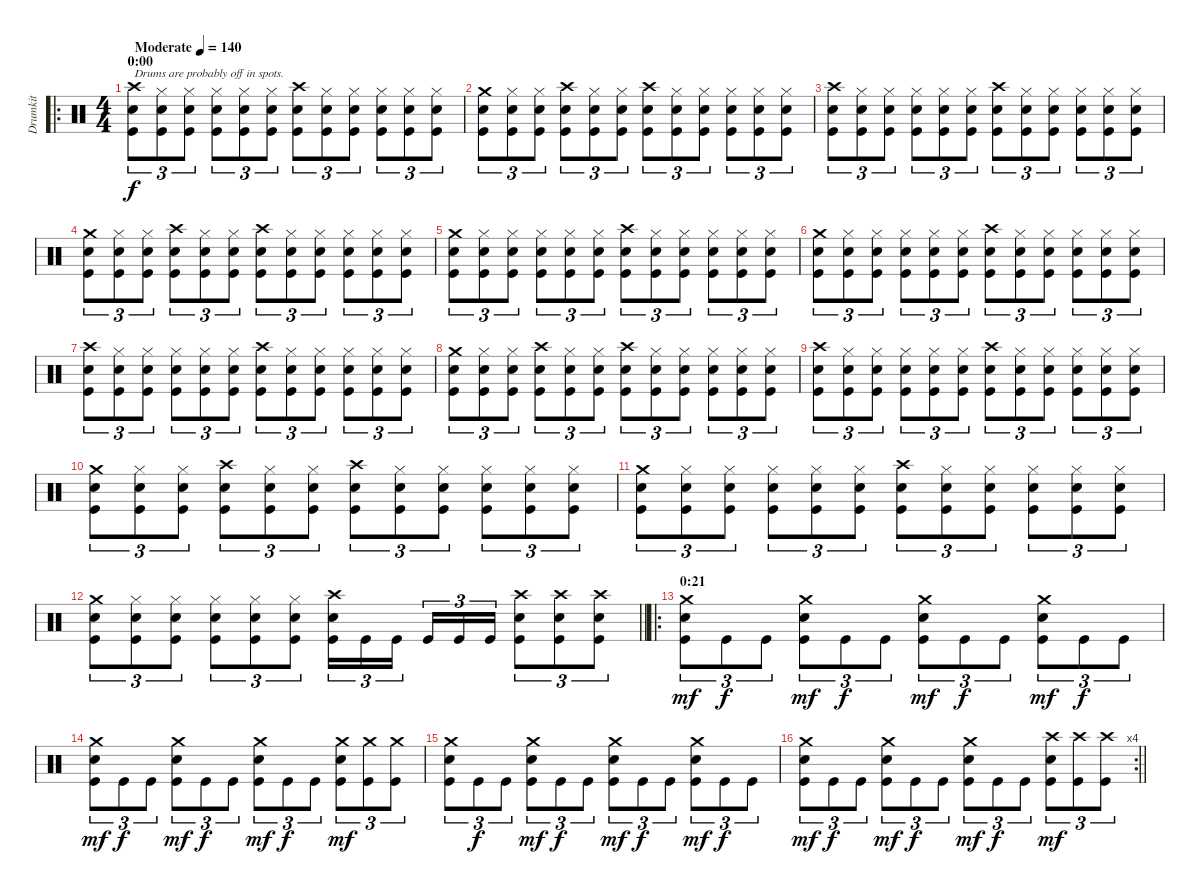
\track ("Drumkit" "Drumkit") {instrument percussion}
\staff {score}
\articulation defaults
\ro
\ts (4 4)
\section ("" "0:00")
\tempo (140 "Moderate")
\clef neutral
\ks c
("Crash high (hit)" "Snare (hit) 2" "Kick (hit)").8{tu (3 2) txt "Drums are probably off in spots." dy f} ("Hi-Hat (closed)" "Snare (hit) 2" "Kick (hit)").8{tu (3 2)} ("Hi-Hat (closed)" "Snare (hit) 2" "Kick (hit)").8{tu (3 2)} ("Hi-Hat (closed)" "Snare (hit) 2" "Kick (hit)").8{tu (3 2)} ("Hi-Hat (closed)" "Snare (hit) 2" "Kick (hit)").8{tu (3 2)} ("Hi-Hat (closed)" "Snare (hit) 2" "Kick (hit)").8{tu (3 2)} ("Crash high (hit)" "Snare (hit) 2" "Kick (hit)").8{tu (3 2)} ("Hi-Hat (closed)" "Snare (hit) 2" "Kick (hit)").8{tu (3 2)} ("Hi-Hat (closed)" "Snare (hit) 2" "Kick (hit)").8{tu (3 2)} ("Hi-Hat (closed)" "Snare (hit) 2" "Kick (hit)").8{tu (3 2)} ("Hi-Hat (closed)" "Snare (hit) 2" "Kick (hit)").8{tu (3 2)} ("Hi-Hat (closed)" "Snare (hit) 2" "Kick (hit)").8{tu (3 2)} |
("Crash medium (hit)" "Snare (hit) 2" "Kick (hit)").8{tu (3 2)} ("Hi-Hat (closed)" "Snare (hit) 2" "Kick (hit)").8{tu (3 2)} ("Hi-Hat (closed)" "Snare (hit) 2" "Kick (hit)").8{tu (3 2)} ("Crash high (hit)" "Snare (hit) 2" "Kick (hit)").8{tu (3 2)} ("Hi-Hat (closed)" "Snare (hit) 2" "Kick (hit)").8{tu (3 2)} ("Hi-Hat (closed)" "Snare (hit) 2" "Kick (hit)").8{tu (3 2)} ("Crash high (hit)" "Snare (hit) 2" "Kick (hit)").8{tu (3 2)} ("Hi-Hat (closed)" "Snare (hit) 2" "Kick (hit)").8{tu (3 2)} ("Hi-Hat (closed)" "Snare (hit) 2" "Kick (hit)").8{tu (3 2)} ("Hi-Hat (closed)" "Snare (hit) 2" "Kick (hit)").8{tu (3 2)} ("Hi-Hat (closed)" "Snare (hit) 2" "Kick (hit)").8{tu (3 2)} ("Hi-Hat (closed)" "Snare (hit) 2" "Kick (hit)").8{tu (3 2)} |
("Crash high (hit)" "Snare (hit) 2" "Kick (hit)").8{tu (3 2)} ("Hi-Hat (closed)" "Snare (hit) 2" "Kick (hit)").8{tu (3 2)} ("Hi-Hat (closed)" "Snare (hit) 2" "Kick (hit)").8{tu (3 2)} ("Hi-Hat (closed)" "Snare (hit) 2" "Kick (hit)").8{tu (3 2)} ("Hi-Hat (closed)" "Snare (hit) 2" "Kick (hit)").8{tu (3 2)} ("Hi-Hat (closed)" "Snare (hit) 2" "Kick (hit)").8{tu (3 2)} ("Crash high (hit)" "Snare (hit) 2" "Kick (hit)").8{tu (3 2)} ("Hi-Hat (closed)" "Snare (hit) 2" "Kick (hit)").8{tu (3 2)} ("Hi-Hat (closed)" "Snare (hit) 2" "Kick (hit)").8{tu (3 2)} ("Hi-Hat (closed)" "Snare (hit) 2" "Kick (hit)").8{tu (3 2)} ("Hi-Hat (closed)" "Snare (hit) 2" "Kick (hit)").8{tu (3 2)} ("Hi-Hat (closed)" "Snare (hit) 2" "Kick (hit)").8{tu (3 2)} |
("Crash medium (hit)" "Snare (hit) 2" "Kick (hit)").8{tu (3 2)} ("Hi-Hat (closed)" "Snare (hit) 2" "Kick (hit)").8{tu (3 2)} ("Hi-Hat (closed)" "Snare (hit) 2" "Kick (hit)").8{tu (3 2)} ("Crash high (hit)" "Snare (hit) 2" "Kick (hit)").8{tu (3 2)} ("Hi-Hat (closed)" "Snare (hit) 2" "Kick (hit)").8{tu (3 2)} ("Hi-Hat (closed)" "Snare (hit) 2" "Kick (hit)").8{tu (3 2)} ("Crash high (hit)" "Snare (hit) 2" "Kick (hit)").8{tu (3 2)} ("Hi-Hat (closed)" "Snare (hit) 2" "Kick (hit)").8{tu (3 2)} ("Hi-Hat (closed)" "Snare (hit) 2" "Kick (hit)").8{tu (3 2)} ("Hi-Hat (closed)" "Snare (hit) 2" "Kick (hit)").8{tu (3 2)} ("Hi-Hat (closed)" "Snare (hit) 2" "Kick (hit)").8{tu (3 2)} ("Hi-Hat (closed)" "Snare (hit) 2" "Kick (hit)").8{tu (3 2)} |
("Crash medium (hit)" "Snare (hit) 2" "Kick (hit)").8{tu (3 2)} ("Hi-Hat (closed)" "Snare (hit) 2" "Kick (hit)").8{tu (3 2)} ("Hi-Hat (closed)" "Snare (hit) 2" "Kick (hit)").8{tu (3 2)} ("Hi-Hat (closed)" "Snare (hit) 2" "Kick (hit)").8{tu (3 2)} ("Hi-Hat (closed)" "Snare (hit) 2" "Kick (hit)").8{tu (3 2)} ("Hi-Hat (closed)" "Snare (hit) 2" "Kick (hit)").8{tu (3 2)} ("Crash high (hit)" "Snare (hit) 2" "Kick (hit)").8{tu (3 2)} ("Hi-Hat (closed)" "Snare (hit) 2" "Kick (hit)").8{tu (3 2)} ("Hi-Hat (closed)" "Snare (hit) 2" "Kick (hit)").8{tu (3 2)} ("Hi-Hat (closed)" "Snare (hit) 2" "Kick (hit)").8{tu (3 2)} ("Hi-Hat (closed)" "Snare (hit) 2" "Kick (hit)").8{tu (3 2)} ("Hi-Hat (closed)" "Snare (hit) 2" "Kick (hit)").8{tu (3 2)} |
("Crash medium (hit)" "Snare (hit) 2" "Kick (hit)").8{tu (3 2)} ("Hi-Hat (closed)" "Snare (hit) 2" "Kick (hit)").8{tu (3 2)} ("Hi-Hat (closed)" "Snare (hit) 2" "Kick (hit)").8{tu (3 2)} ("Hi-Hat (closed)" "Snare (hit) 2" "Kick (hit)").8{tu (3 2)} ("Hi-Hat (closed)" "Snare (hit) 2" "Kick (hit)").8{tu (3 2)} ("Hi-Hat (closed)" "Snare (hit) 2" "Kick (hit)").8{tu (3 2)} ("Crash high (hit)" "Snare (hit) 2" "Kick (hit)").8{tu (3 2)} ("Hi-Hat (closed)" "Snare (hit) 2" "Kick (hit)").8{tu (3 2)} ("Hi-Hat (closed)" "Snare (hit) 2" "Kick (hit)").8{tu (3 2)} ("Hi-Hat (closed)" "Snare (hit) 2" "Kick (hit)").8{tu (3 2)} ("Hi-Hat (closed)" "Snare (hit) 2" "Kick (hit)").8{tu (3 2)} ("Hi-Hat (closed)" "Snare (hit) 2" "Kick (hit)").8{tu (3 2)} |
("Crash high (hit)" "Snare (hit) 2" "Kick (hit)").8{tu (3 2)} ("Hi-Hat (closed)" "Snare (hit) 2" "Kick (hit)").8{tu (3 2)} ("Hi-Hat (closed)" "Snare (hit) 2" "Kick (hit)").8{tu (3 2)} ("Hi-Hat (closed)" "Snare (hit) 2" "Kick (hit)").8{tu (3 2)} ("Hi-Hat (closed)" "Snare (hit) 2" "Kick (hit)").8{tu (3 2)} ("Hi-Hat (closed)" "Snare (hit) 2" "Kick (hit)").8{tu (3 2)} ("Crash high (hit)" "Snare (hit) 2" "Kick (hit)").8{tu (3 2)} ("Hi-Hat (closed)" "Snare (hit) 2" "Kick (hit)").8{tu (3 2)} ("Hi-Hat (closed)" "Snare (hit) 2" "Kick (hit)").8{tu (3 2)} ("Hi-Hat (closed)" "Snare (hit) 2" "Kick (hit)").8{tu (3 2)} ("Hi-Hat (closed)" "Snare (hit) 2" "Kick (hit)").8{tu (3 2)} ("Hi-Hat (closed)" "Snare (hit) 2" "Kick (hit)").8{tu (3 2)} |
("Crash medium (hit)" "Snare (hit) 2" "Kick (hit)").8{tu (3 2)} ("Hi-Hat (closed)" "Snare (hit) 2" "Kick (hit)").8{tu (3 2)} ("Hi-Hat (closed)" "Snare (hit) 2" "Kick (hit)").8{tu (3 2)} ("Crash high (hit)" "Snare (hit) 2" "Kick (hit)").8{tu (3 2)} ("Hi-Hat (closed)" "Snare (hit) 2" "Kick (hit)").8{tu (3 2)} ("Hi-Hat (closed)" "Snare (hit) 2" "Kick (hit)").8{tu (3 2)} ("Crash high (hit)" "Snare (hit) 2" "Kick (hit)").8{tu (3 2)} ("Hi-Hat (closed)" "Snare (hit) 2" "Kick (hit)").8{tu (3 2)} ("Hi-Hat (closed)" "Snare (hit) 2" "Kick (hit)").8{tu (3 2)} ("Hi-Hat (closed)" "Snare (hit) 2" "Kick (hit)").8{tu (3 2)} ("Hi-Hat (closed)" "Snare (hit) 2" "Kick (hit)").8{tu (3 2)} ("Hi-Hat (closed)" "Snare (hit) 2" "Kick (hit)").8{tu (3 2)} |
("Crash high (hit)" "Snare (hit) 2" "Kick (hit)").8{tu (3 2)} ("Hi-Hat (closed)" "Snare (hit) 2" "Kick (hit)").8{tu (3 2)} ("Hi-Hat (closed)" "Snare (hit) 2" "Kick (hit)").8{tu (3 2)} ("Hi-Hat (closed)" "Snare (hit) 2" "Kick (hit)").8{tu (3 2)} ("Hi-Hat (closed)" "Snare (hit) 2" "Kick (hit)").8{tu (3 2)} ("Hi-Hat (closed)" "Snare (hit) 2" "Kick (hit)").8{tu (3 2)} ("Crash high (hit)" "Snare (hit) 2" "Kick (hit)").8{tu (3 2)} ("Hi-Hat (closed)" "Snare (hit) 2" "Kick (hit)").8{tu (3 2)} ("Hi-Hat (closed)" "Snare (hit) 2" "Kick (hit)").8{tu (3 2)} ("Hi-Hat (closed)" "Snare (hit) 2" "Kick (hit)").8{tu (3 2)} ("Hi-Hat (closed)" "Snare (hit) 2" "Kick (hit)").8{tu (3 2)} ("Hi-Hat (closed)" "Snare (hit) 2" "Kick (hit)").8{tu (3 2)} |
("Crash medium (hit)" "Snare (hit) 2" "Kick (hit)").8{tu (3 2)} ("Hi-Hat (closed)" "Snare (hit) 2" "Kick (hit)").8{tu (3 2)} ("Hi-Hat (closed)" "Snare (hit) 2" "Kick (hit)").8{tu (3 2)} ("Crash high (hit)" "Snare (hit) 2" "Kick (hit)").8{tu (3 2)} ("Hi-Hat (closed)" "Snare (hit) 2" "Kick (hit)").8{tu (3 2)} ("Hi-Hat (closed)" "Snare (hit) 2" "Kick (hit)").8{tu (3 2)} ("Crash high (hit)" "Snare (hit) 2" "Kick (hit)").8{tu (3 2)} ("Hi-Hat (closed)" "Snare (hit) 2" "Kick (hit)").8{tu (3 2)} ("Hi-Hat (closed)" "Snare (hit) 2" "Kick (hit)").8{tu (3 2)} ("Hi-Hat (closed)" "Snare (hit) 2" "Kick (hit)").8{tu (3 2)} ("Hi-Hat (closed)" "Snare (hit) 2" "Kick (hit)").8{tu (3 2)} ("Hi-Hat (closed)" "Snare (hit) 2" "Kick (hit)").8{tu (3 2)} |
("Crash medium (hit)" "Snare (hit) 2" "Kick (hit)").8{tu (3 2)} ("Hi-Hat (closed)" "Snare (hit) 2" "Kick (hit)").8{tu (3 2)} ("Hi-Hat (closed)" "Snare (hit) 2" "Kick (hit)").8{tu (3 2)} ("Hi-Hat (closed)" "Snare (hit) 2" "Kick (hit)").8{tu (3 2)} ("Hi-Hat (closed)" "Snare (hit) 2" "Kick (hit)").8{tu (3 2)} ("Hi-Hat (closed)" "Snare (hit) 2" "Kick (hit)").8{tu (3 2)} ("Crash high (hit)" "Snare (hit) 2" "Kick (hit)").8{tu (3 2)} ("Hi-Hat (closed)" "Snare (hit) 2" "Kick (hit)").8{tu (3 2)} ("Hi-Hat (closed)" "Snare (hit) 2" "Kick (hit)").8{tu (3 2)} ("Hi-Hat (closed)" "Snare (hit) 2" "Kick (hit)").8{tu (3 2)} ("Hi-Hat (closed)" "Snare (hit) 2" "Kick (hit)").8{tu (3 2)} ("Hi-Hat (closed)" "Snare (hit) 2" "Kick (hit)").8{tu (3 2)} |
\barLineRight lightlight
("Crash medium (hit)" "Snare (hit) 2" "Kick (hit)").8{tu (3 2)} ("Hi-Hat (closed)" "Snare (hit) 2" "Kick (hit)").8{tu (3 2)} ("Hi-Hat (closed)" "Snare (hit) 2" "Kick (hit)").8{tu (3 2)} ("Hi-Hat (closed)" "Snare (hit) 2" "Kick (hit)").8{tu (3 2)} ("Hi-Hat (closed)" "Snare (hit) 2" "Kick (hit)").8{tu (3 2)} ("Hi-Hat (closed)" "Snare (hit) 2" "Kick (hit)").8{tu (3 2)} ("Crash high (hit)" "Snare (hit) 2" "Kick (hit)").16{tu (3 2)} "Kick (hit)".16{tu (3 2)} "Kick (hit)".16{tu (3 2) beam splitsecondary} "Kick (hit)".16{tu (3 2)} "Kick (hit)".16{tu (3 2)} "Kick (hit)".16{tu (3 2)} ("Crash high (hit)" "Snare (hit) 2" "Kick (hit)").8{tu (3 2)} ("Crash high (hit)" "Snare (hit) 2" "Kick (hit)").8{tu (3 2)} ("Crash high (hit)" "Snare (hit) 2" "Kick (hit)").8{tu (3 2)} |
\ro
\section ("" "0:21")
("Crash medium (hit)" "Snare (hit) 2" "Kick (hit)").8{tu (3 2) dy mf} "Kick (hit)".8{tu (3 2) dy f} "Kick (hit)".8{tu (3 2)} ("Crash medium (hit)" "Snare (hit) 2" "Kick (hit)").8{tu (3 2) dy mf} "Kick (hit)".8{tu (3 2) dy f} "Kick (hit)".8{tu (3 2)} ("Crash medium (hit)" "Snare (hit) 2" "Kick (hit)").8{tu (3 2) dy mf} "Kick (hit)".8{tu (3 2) dy f} "Kick (hit)".8{tu (3 2)} ("Crash medium (hit)" "Snare (hit) 2" "Kick (hit)").8{tu (3 2) dy mf} "Kick (hit)".8{tu (3 2) dy f} "Kick (hit)".8{tu (3 2)} |
("Crash medium (hit)" "Snare (hit) 2" "Kick (hit)").8{tu (3 2) dy mf} "Kick (hit)".8{tu (3 2) dy f} "Kick (hit)".8{tu (3 2)} ("Crash medium (hit)" "Snare (hit) 2" "Kick (hit)").8{tu (3 2) dy mf} "Kick (hit)".8{tu (3 2) dy f} "Kick (hit)".8{tu (3 2)} ("Crash medium (hit)" "Snare (hit) 2" "Kick (hit)").8{tu (3 2) dy mf} "Kick (hit)".8{tu (3 2) dy f} "Kick (hit)".8{tu (3 2)} ("Crash medium (hit)" "Snare (hit) 2" "Kick (hit)").8{tu (3 2) dy mf} ("Crash medium (hit)" "Kick (hit)").8{tu (3 2)} ("Crash medium (hit)" "Kick (hit)").8{tu (3 2)} |
("Crash medium (hit)" "Snare (hit) 2" "Kick (hit)").8{tu (3 2)} "Kick (hit)".8{tu (3 2) dy f} "Kick (hit)".8{tu (3 2)} ("Crash medium (hit)" "Snare (hit) 2" "Kick (hit)").8{tu (3 2) dy mf} "Kick (hit)".8{tu (3 2) dy f} "Kick (hit)".8{tu (3 2)} ("Crash medium (hit)" "Snare (hit) 2" "Kick (hit)").8{tu (3 2) dy mf} "Kick (hit)".8{tu (3 2) dy f} "Kick (hit)".8{tu (3 2)} ("Crash medium (hit)" "Snare (hit) 2" "Kick (hit)").8{tu (3 2) dy mf} "Kick (hit)".8{tu (3 2) dy f} "Kick (hit)".8{tu (3 2)} |
\rc 4
\barLineRight lightlight
("Crash medium (hit)" "Snare (hit) 2" "Kick (hit)").8{tu (3 2) dy mf} "Kick (hit)".8{tu (3 2) dy f} "Kick (hit)".8{tu (3 2)} ("Crash medium (hit)" "Snare (hit) 2" "Kick (hit)").8{tu (3 2) dy mf} "Kick (hit)".8{tu (3 2) dy f} "Kick (hit)".8{tu (3 2)} ("Crash medium (hit)" "Snare (hit) 2" "Kick (hit)").8{tu (3 2) dy mf} "Kick (hit)".8{tu (3 2) dy f} "Kick (hit)".8{tu (3 2)} ("Crash high (hit)" "Snare (hit) 2" "Kick (hit)").8{tu (3 2) dy mf} ("Crash high (hit)" "Kick (hit)").8{tu (3 2)} ("Crash high (hit)" "Kick (hit)").8{tu (3 2)}
